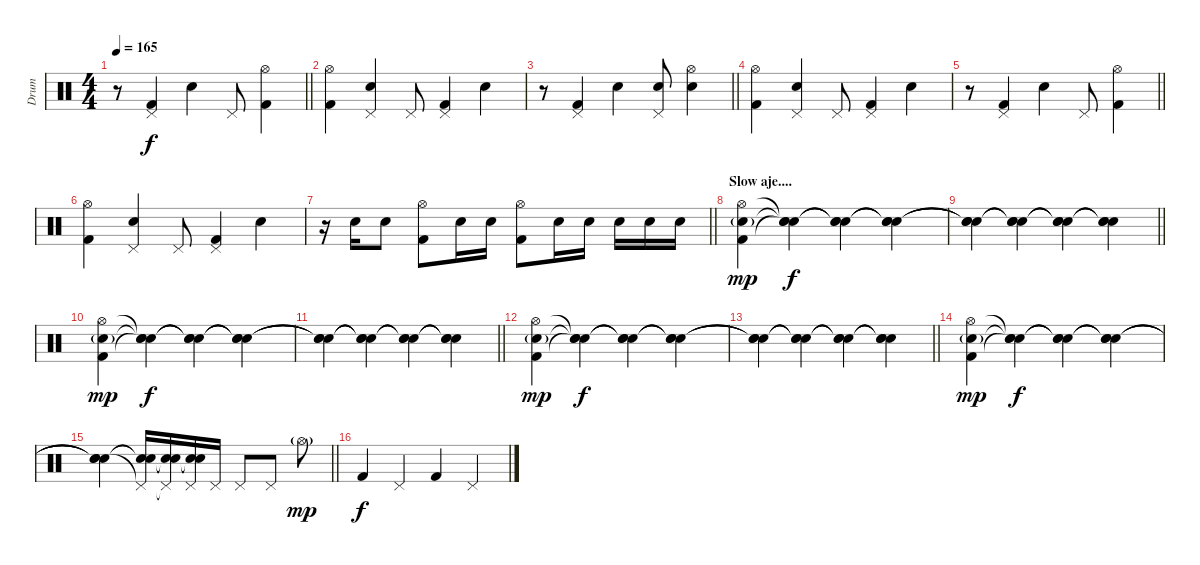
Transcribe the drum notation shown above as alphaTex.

\track ("Drum" "Drum") {instrument percussion}
\staff {score}
\articulation defaults
\ts (4 4)
\tempo 165
\clef neutral
\barLineRight lightlight
\ks c
r.8{dy f} ("Kick (hit) 2" "Pedal Hi-Hat (hit)").4 "Electric Snare (hit)".4 "Pedal Hi-Hat (hit)".8 ("Kick (hit) 2" "Hi-Hat (open)").4 |
("Kick (hit) 2" "Hi-Hat (open)").4 ("Electric Snare (hit)" "Pedal Hi-Hat (hit)").4 "Pedal Hi-Hat (hit)".8 ("Kick (hit) 2" "Pedal Hi-Hat (hit)").4 "Electric Snare (hit)".4 |
\barLineRight lightlight
r.8 ("Kick (hit) 2" "Pedal Hi-Hat (hit)").4 "Electric Snare (hit)".4 ("Electric Snare (hit)" "Pedal Hi-Hat (hit)").8 ("Electric Snare (hit)" "Hi-Hat (open)").4 |
("Kick (hit) 2" "Hi-Hat (open)").4 ("Electric Snare (hit)" "Pedal Hi-Hat (hit)").4 "Pedal Hi-Hat (hit)".8 ("Kick (hit) 2" "Pedal Hi-Hat (hit)").4 "Electric Snare (hit)".4 |
\barLineRight lightlight
r.8 ("Kick (hit) 2" "Pedal Hi-Hat (hit)").4 "Electric Snare (hit)".4 "Pedal Hi-Hat (hit)".8 ("Kick (hit) 2" "Hi-Hat (open)").4 |
("Kick (hit) 2" "Hi-Hat (open)").4 ("Electric Snare (hit)" "Pedal Hi-Hat (hit)").4 "Pedal Hi-Hat (hit)".8 ("Kick (hit) 2" "Pedal Hi-Hat (hit)").4 "Electric Snare (hit)".4 |
\barLineRight lightlight
r.16 "Electric Snare (hit)".16 "Electric Snare (hit)".8 ("Kick (hit) 2" "Hi-Hat (open)").8 "Electric Snare (hit)".16 "Electric Snare (hit)".16 ("Kick (hit) 2" "Hi-Hat (open)").8 "Electric Snare (hit)".16 "Electric Snare (hit)".16 "Electric Snare (hit)".16 "Electric Snare (hit)".16 "Electric Snare (hit)".16 |
\section ("" "Slow aje....")
("Kick (hit) 2" "Electric Snare (hit)"{g} "Hi-Hat (open)").4{dy mp} ("Snare (hit)"{t} "Snare (hit)"{t} "Snare (hit)"{t}).4{dy f} ("Snare (hit)"{t} "Snare (hit)"{t} "Snare (hit)"{t}).4 ("Snare (hit)"{t} "Snare (hit)"{t} "Snare (hit)"{t}).4 |
\barLineRight lightlight
("Snare (hit)"{t} "Snare (hit)"{t} "Snare (hit)"{t}).4 ("Snare (hit)"{t} "Snare (hit)"{t} "Snare (hit)"{t}).4 ("Snare (hit)"{t} "Snare (hit)"{t} "Snare (hit)"{t}).4 ("Snare (hit)"{t} "Snare (hit)"{t} "Snare (hit)"{t}).4 |
("Kick (hit) 2" "Electric Snare (hit)"{g} "Hi-Hat (open)").4{dy mp} ("Snare (hit)"{t} "Snare (hit)"{t} "Snare (hit)"{t}).4{dy f} ("Snare (hit)"{t} "Snare (hit)"{t} "Snare (hit)"{t}).4 ("Snare (hit)"{t} "Snare (hit)"{t} "Snare (hit)"{t}).4 |
\barLineRight lightlight
("Snare (hit)"{t} "Snare (hit)"{t} "Snare (hit)"{t}).4 ("Electric Snare (hit)"{t} "Snare (hit)"{t} "Snare (hit)"{t}).4 ("Snare (hit)"{t} "Snare (hit)"{t} "Snare (hit)"{t}).4 ("Snare (hit)"{t} "Snare (hit)"{t} "Snare (hit)"{t}).4 |
("Kick (hit) 2" "Electric Snare (hit)"{g} "Hi-Hat (open)").4{dy mp} ("Snare (hit)"{t} "Snare (hit)"{t} "Snare (hit)"{t}).4{dy f} ("Snare (hit)"{t} "Snare (hit)"{t} "Snare (hit)"{t}).4 ("Snare (hit)"{t} "Snare (hit)"{t} "Snare (hit)"{t}).4 |
\barLineRight lightlight
("Snare (hit)"{t} "Snare (hit)"{t} "Snare (hit)"{t}).4 ("Snare (hit)"{t} "Snare (hit)"{t} "Snare (hit)"{t}).4 ("Snare (hit)"{t} "Snare (hit)"{t} "Snare (hit)"{t}).4 ("Snare (hit)"{t} "Snare (hit)"{t} "Snare (hit)"{t}).4 |
("Kick (hit) 2" "Electric Snare (hit)"{g} "Hi-Hat (open)").4{dy mp} ("Snare (hit)"{t} "Snare (hit)"{t} "Snare (hit)"{t}).4{dy f} ("Snare (hit)"{t} "Snare (hit)"{t} "Snare (hit)"{t}).4 ("Snare (hit)"{t} "Snare (hit)"{t} "Snare (hit)"{t}).4 |
\barLineRight lightlight
("Snare (hit)"{t} "Snare (hit)"{t} "Snare (hit)"{t}).4 ("Snare (hit)"{t} "Snare (hit)"{t} "Pedal Hi-Hat (hit)"{t}).16 ("Snare (hit)"{t} "Snare (hit)"{t} "Pedal Hi-Hat (hit)"{t}).16 ("Snare (hit)"{t} "Snare (hit)"{t} "Pedal Hi-Hat (hit)").16 "Pedal Hi-Hat (hit)".16 "Pedal Hi-Hat (hit)".8 "Pedal Hi-Hat (hit)".8 "Hi-Hat (open)"{g}.8{dy mp} |
"Kick (hit) 2".4{dy f} "Pedal Hi-Hat (hit)".4 "Kick (hit) 2".4 "Pedal Hi-Hat (hit)".4
